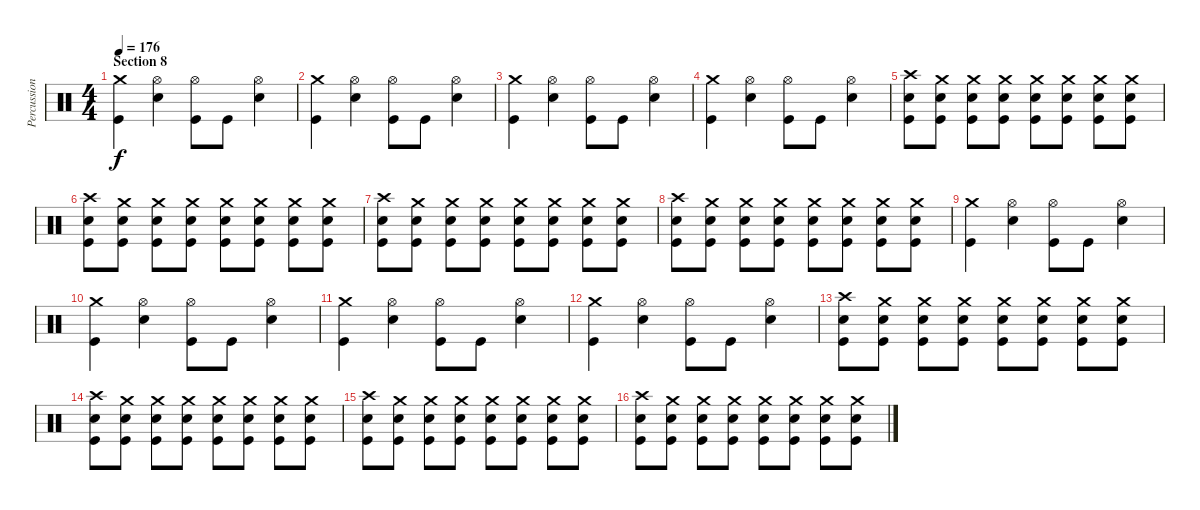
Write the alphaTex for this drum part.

\track ("Percussions" "Percussion") {instrument percussion}
\staff {score}
\articulation defaults
\ts (4 4)
\section ("" "Section 8")
\tempo 176
\clef neutral
\ks c
("Crash medium (hit)" "Kick (hit)").4{dy f} ("Hi-Hat (open)" "Electric Snare (hit)").4 ("Hi-Hat (open)" "Kick (hit)").8 "Kick (hit)".8 ("Hi-Hat (open)" "Electric Snare (hit)").4 |
("Crash medium (hit)" "Kick (hit)").4 ("Hi-Hat (open)" "Electric Snare (hit)").4 ("Hi-Hat (open)" "Kick (hit)").8 "Kick (hit)".8 ("Hi-Hat (open)" "Electric Snare (hit)").4 |
("Crash medium (hit)" "Kick (hit)").4 ("Hi-Hat (open)" "Electric Snare (hit)").4 ("Hi-Hat (open)" "Kick (hit)").8 "Kick (hit)".8 ("Hi-Hat (open)" "Electric Snare (hit)").4 |
("Crash medium (hit)" "Kick (hit)").4 ("Hi-Hat (open)" "Electric Snare (hit)").4 ("Hi-Hat (open)" "Kick (hit)").8 "Kick (hit)".8 ("Hi-Hat (open)" "Electric Snare (hit)").4 |
("Crash high (hit)" "Electric Snare (hit)" "Kick (hit)").8 ("Crash medium (hit)" "Electric Snare (hit)" "Kick (hit)").8 ("Crash medium (hit)" "Electric Snare (hit)" "Kick (hit)").8 ("Crash medium (hit)" "Electric Snare (hit)" "Kick (hit)").8 ("Crash medium (hit)" "Electric Snare (hit)" "Kick (hit)").8 ("Crash medium (hit)" "Electric Snare (hit)" "Kick (hit)").8 ("Crash medium (hit)" "Electric Snare (hit)" "Kick (hit)").8 ("Crash medium (hit)" "Electric Snare (hit)" "Kick (hit)").8 |
("Crash high (hit)" "Electric Snare (hit)" "Kick (hit)").8 ("Crash medium (hit)" "Electric Snare (hit)" "Kick (hit)").8 ("Crash medium (hit)" "Electric Snare (hit)" "Kick (hit)").8 ("Crash medium (hit)" "Electric Snare (hit)" "Kick (hit)").8 ("Crash medium (hit)" "Electric Snare (hit)" "Kick (hit)").8 ("Crash medium (hit)" "Electric Snare (hit)" "Kick (hit)").8 ("Crash medium (hit)" "Electric Snare (hit)" "Kick (hit)").8 ("Crash medium (hit)" "Electric Snare (hit)" "Kick (hit)").8 |
("Crash high (hit)" "Electric Snare (hit)" "Kick (hit)").8 ("Crash medium (hit)" "Electric Snare (hit)" "Kick (hit)").8 ("Crash medium (hit)" "Electric Snare (hit)" "Kick (hit)").8 ("Crash medium (hit)" "Electric Snare (hit)" "Kick (hit)").8 ("Crash medium (hit)" "Electric Snare (hit)" "Kick (hit)").8 ("Crash medium (hit)" "Electric Snare (hit)" "Kick (hit)").8 ("Crash medium (hit)" "Electric Snare (hit)" "Kick (hit)").8 ("Crash medium (hit)" "Electric Snare (hit)" "Kick (hit)").8 |
("Crash high (hit)" "Electric Snare (hit)" "Kick (hit)").8 ("Crash medium (hit)" "Electric Snare (hit)" "Kick (hit)").8 ("Crash medium (hit)" "Electric Snare (hit)" "Kick (hit)").8 ("Crash medium (hit)" "Electric Snare (hit)" "Kick (hit)").8 ("Crash medium (hit)" "Electric Snare (hit)" "Kick (hit)").8 ("Crash medium (hit)" "Electric Snare (hit)" "Kick (hit)").8 ("Crash medium (hit)" "Electric Snare (hit)" "Kick (hit)").8 ("Crash medium (hit)" "Electric Snare (hit)" "Kick (hit)").8 |
("Crash medium (hit)" "Kick (hit)").4 ("Hi-Hat (open)" "Electric Snare (hit)").4 ("Hi-Hat (open)" "Kick (hit)").8 "Kick (hit)".8 ("Hi-Hat (open)" "Electric Snare (hit)").4 |
("Crash medium (hit)" "Kick (hit)").4 ("Hi-Hat (open)" "Electric Snare (hit)").4 ("Hi-Hat (open)" "Kick (hit)").8 "Kick (hit)".8 ("Hi-Hat (open)" "Electric Snare (hit)").4 |
("Crash medium (hit)" "Kick (hit)").4 ("Hi-Hat (open)" "Electric Snare (hit)").4 ("Hi-Hat (open)" "Kick (hit)").8 "Kick (hit)".8 ("Hi-Hat (open)" "Electric Snare (hit)").4 |
("Crash medium (hit)" "Kick (hit)").4 ("Hi-Hat (open)" "Electric Snare (hit)").4 ("Hi-Hat (open)" "Kick (hit)").8 "Kick (hit)".8 ("Hi-Hat (open)" "Electric Snare (hit)").4 |
("Crash high (hit)" "Electric Snare (hit)" "Kick (hit)").8 ("Crash medium (hit)" "Electric Snare (hit)" "Kick (hit)").8 ("Crash medium (hit)" "Electric Snare (hit)" "Kick (hit)").8 ("Crash medium (hit)" "Electric Snare (hit)" "Kick (hit)").8 ("Crash medium (hit)" "Electric Snare (hit)" "Kick (hit)").8 ("Crash medium (hit)" "Electric Snare (hit)" "Kick (hit)").8 ("Crash medium (hit)" "Electric Snare (hit)" "Kick (hit)").8 ("Crash medium (hit)" "Electric Snare (hit)" "Kick (hit)").8 |
("Crash high (hit)" "Electric Snare (hit)" "Kick (hit)").8 ("Crash medium (hit)" "Electric Snare (hit)" "Kick (hit)").8 ("Crash medium (hit)" "Electric Snare (hit)" "Kick (hit)").8 ("Crash medium (hit)" "Electric Snare (hit)" "Kick (hit)").8 ("Crash medium (hit)" "Electric Snare (hit)" "Kick (hit)").8 ("Crash medium (hit)" "Electric Snare (hit)" "Kick (hit)").8 ("Crash medium (hit)" "Electric Snare (hit)" "Kick (hit)").8 ("Crash medium (hit)" "Electric Snare (hit)" "Kick (hit)").8 |
("Crash high (hit)" "Electric Snare (hit)" "Kick (hit)").8 ("Crash medium (hit)" "Electric Snare (hit)" "Kick (hit)").8 ("Crash medium (hit)" "Electric Snare (hit)" "Kick (hit)").8 ("Crash medium (hit)" "Electric Snare (hit)" "Kick (hit)").8 ("Crash medium (hit)" "Electric Snare (hit)" "Kick (hit)").8 ("Crash medium (hit)" "Electric Snare (hit)" "Kick (hit)").8 ("Crash medium (hit)" "Electric Snare (hit)" "Kick (hit)").8 ("Crash medium (hit)" "Electric Snare (hit)" "Kick (hit)").8 |
("Crash high (hit)" "Electric Snare (hit)" "Kick (hit)").8 ("Crash medium (hit)" "Electric Snare (hit)" "Kick (hit)").8 ("Crash medium (hit)" "Electric Snare (hit)" "Kick (hit)").8 ("Crash medium (hit)" "Electric Snare (hit)" "Kick (hit)").8 ("Crash medium (hit)" "Electric Snare (hit)" "Kick (hit)").8 ("Crash medium (hit)" "Electric Snare (hit)" "Kick (hit)").8 ("Crash medium (hit)" "Electric Snare (hit)" "Kick (hit)").8 ("Crash medium (hit)" "Electric Snare (hit)" "Kick (hit)").8
